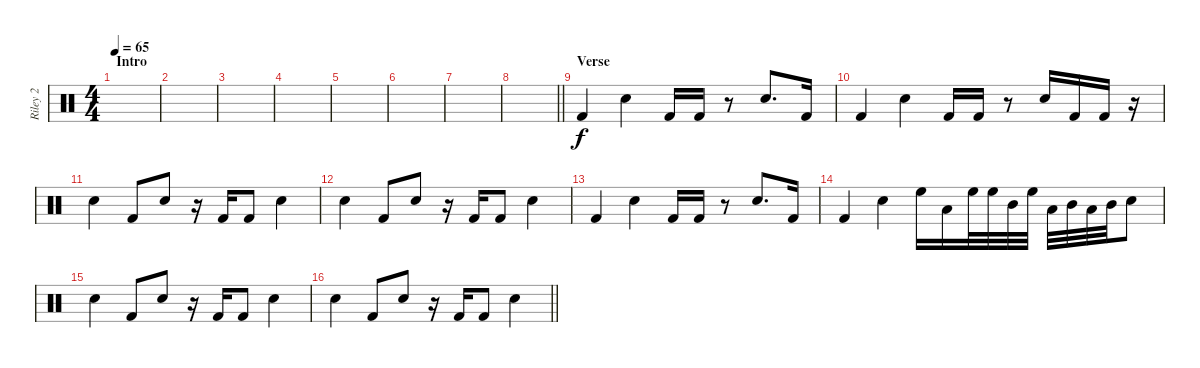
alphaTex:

\track ("Riley 2" "Riley 2") {instrument percussion}
\staff {score}
\articulation defaults
\ts (4 4)
\section ("" "Intro")
\tempo 65
\clef neutral
\ks c
|
|
|
|
|
|
|
\barLineRight lightlight
|
\section ("" "Verse")
"Kick (hit) 2".4 "Electric Snare (hit)".4 "Kick (hit) 2".16 "Kick (hit) 2".16 r.8 "Electric Snare (hit)".8{d} "Kick (hit) 2".16 |
"Kick (hit) 2".4 "Electric Snare (hit)".4 "Kick (hit) 2".16 "Kick (hit) 2".16 r.8 "Electric Snare (hit)".16 "Kick (hit) 2".16 "Kick (hit) 2".16 r.16 |
"Electric Snare (hit)".4 "Kick (hit) 2".8 "Electric Snare (hit)".8 r.16 "Kick (hit) 2".16 "Kick (hit) 2".8 "Electric Snare (hit)".4 |
"Electric Snare (hit)".4 "Kick (hit) 2".8 "Electric Snare (hit)".8 r.16 "Kick (hit) 2".16 "Kick (hit) 2".8 "Electric Snare (hit)".4 |
"Kick (hit) 2".4 "Electric Snare (hit)".4 "Kick (hit) 2".16 "Kick (hit) 2".16 r.8 "Electric Snare (hit)".8{d} "Kick (hit) 2".16 |
"Kick (hit) 2".4 "Electric Snare (hit)".4 "High Floor Tom (hit)".16 "Low Tom (hit)".16 "High Floor Tom (hit)".32 "High Floor Tom (hit)".32 "Mid Tom (hit)".32 "High Floor Tom (hit)".32 "Low Tom (hit)".32 "Mid Tom (hit)".32 "Low Tom (hit)".32 "Mid Tom (hit)".32 "Electric Snare (hit)".8 |
"Electric Snare (hit)".4 "Kick (hit) 2".8 "Electric Snare (hit)".8 r.16 "Kick (hit) 2".16 "Kick (hit) 2".8 "Electric Snare (hit)".4 |
\barLineRight lightlight "Electric Snare (hit)".4 "Kick (hit) 2".8 "Electric Snare (hit)".8
r.16 "Kick (hit) 2".16 "Kick (hit) 2".8 "Electric Snare (hit)".4
